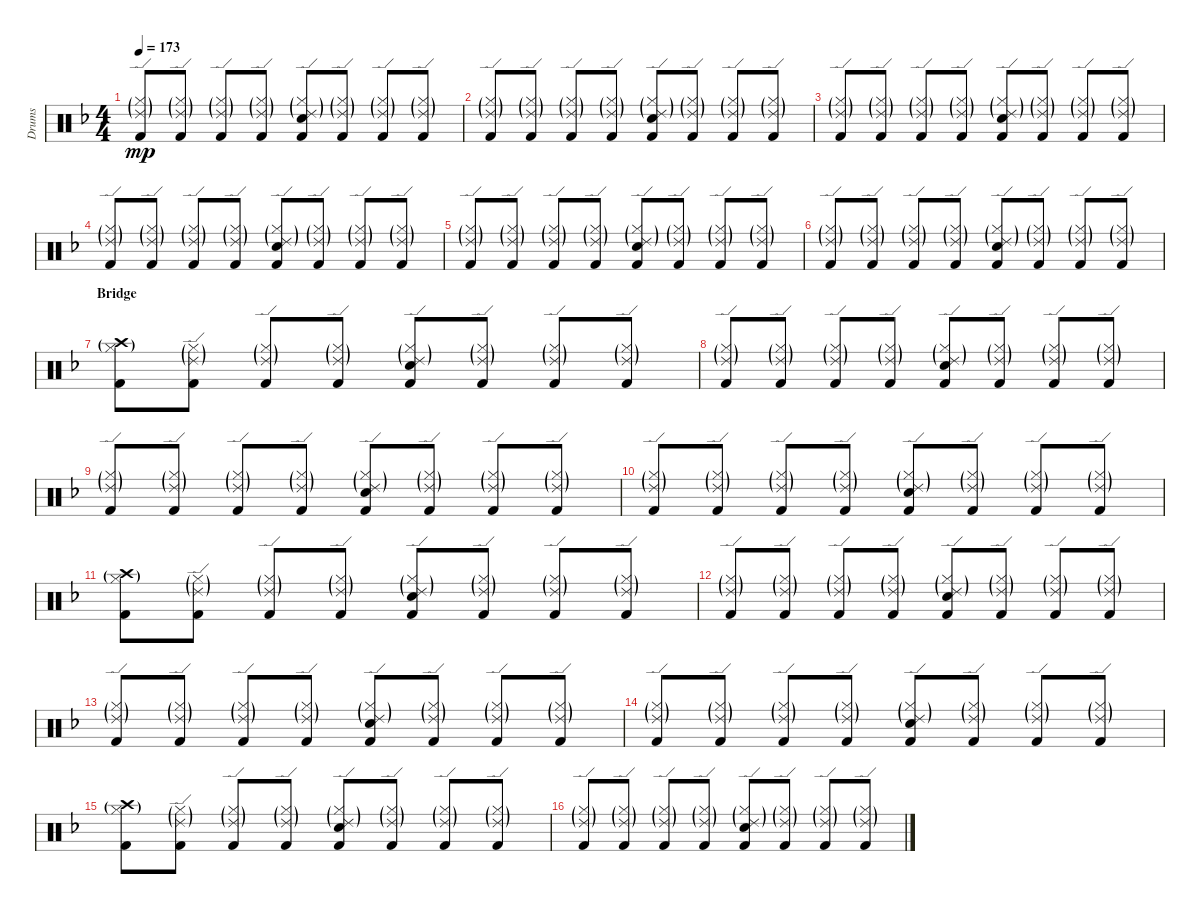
\track ("Drums" "Drums") {instrument percussion}
\staff {score}
\articulation defaults
\ts (4 4)
\tempo 173
\clef neutral
\ks dminor
("Ride (edge) 2"{g} "Hi-Hat (closed)"{g} "Kick (hit) 2").8{dy mp} ("Ride (edge) 2"{g} "Hi-Hat (closed)"{g} "Kick (hit) 2").8 ("Ride (edge) 2"{g} "Hi-Hat (closed)"{g} "Kick (hit) 2").8 ("Ride (edge) 2"{g} "Hi-Hat (closed)"{g} "Kick (hit) 2").8 ("Ride (edge) 2"{g} "Hi-Hat (closed)"{g} "Snare (hit) 2" "Kick (hit) 2").8 ("Ride (edge) 2"{g} "Hi-Hat (closed)"{g} "Kick (hit) 2").8 ("Ride (edge) 2"{g} "Hi-Hat (closed)"{g} "Kick (hit) 2").8 ("Ride (edge) 2"{g} "Hi-Hat (closed)"{g} "Kick (hit) 2").8 |
("Ride (edge) 2"{g} "Hi-Hat (closed)"{g} "Kick (hit) 2").8 ("Ride (edge) 2"{g} "Hi-Hat (closed)"{g} "Kick (hit) 2").8 ("Ride (edge) 2"{g} "Hi-Hat (closed)"{g} "Kick (hit) 2").8 ("Ride (edge) 2"{g} "Hi-Hat (closed)"{g} "Kick (hit) 2").8 ("Ride (edge) 2"{g} "Hi-Hat (closed)"{g} "Snare (hit) 2" "Kick (hit) 2").8 ("Ride (edge) 2"{g} "Hi-Hat (closed)"{g} "Kick (hit) 2").8 ("Ride (edge) 2"{g} "Hi-Hat (closed)"{g} "Kick (hit) 2").8 ("Ride (edge) 2"{g} "Hi-Hat (closed)"{g} "Kick (hit) 2").8 |
("Ride (edge) 2"{g} "Hi-Hat (closed)"{g} "Kick (hit) 2").8 ("Ride (edge) 2"{g} "Hi-Hat (closed)"{g} "Kick (hit) 2").8 ("Ride (edge) 2"{g} "Hi-Hat (closed)"{g} "Kick (hit) 2").8 ("Ride (edge) 2"{g} "Hi-Hat (closed)"{g} "Kick (hit) 2").8 ("Ride (edge) 2"{g} "Hi-Hat (closed)"{g} "Snare (hit) 2" "Kick (hit) 2").8 ("Ride (edge) 2"{g} "Hi-Hat (closed)"{g} "Kick (hit) 2").8 ("Ride (edge) 2"{g} "Hi-Hat (closed)"{g} "Kick (hit) 2").8 ("Ride (edge) 2"{g} "Hi-Hat (closed)"{g} "Kick (hit) 2").8 |
("Ride (edge) 2"{g} "Hi-Hat (closed)"{g} "Kick (hit) 2").8 ("Ride (edge) 2"{g} "Hi-Hat (closed)"{g} "Kick (hit) 2").8 ("Ride (edge) 2"{g} "Hi-Hat (closed)"{g} "Kick (hit) 2").8 ("Ride (edge) 2"{g} "Hi-Hat (closed)"{g} "Kick (hit) 2").8 ("Ride (edge) 2"{g} "Hi-Hat (closed)"{g} "Snare (hit) 2" "Kick (hit) 2").8 ("Ride (edge) 2"{g} "Hi-Hat (closed)"{g} "Kick (hit) 2").8 ("Ride (edge) 2"{g} "Hi-Hat (closed)"{g} "Kick (hit) 2").8 ("Ride (edge) 2"{g} "Hi-Hat (closed)"{g} "Kick (hit) 2").8 |
("Ride (edge) 2"{g} "Hi-Hat (closed)"{g} "Kick (hit) 2").8 ("Ride (edge) 2"{g} "Hi-Hat (closed)"{g} "Kick (hit) 2").8 ("Ride (edge) 2"{g} "Hi-Hat (closed)"{g} "Kick (hit) 2").8 ("Ride (edge) 2"{g} "Hi-Hat (closed)"{g} "Kick (hit) 2").8 ("Ride (edge) 2"{g} "Hi-Hat (closed)"{g} "Snare (hit) 2" "Kick (hit) 2").8 ("Ride (edge) 2"{g} "Hi-Hat (closed)"{g} "Kick (hit) 2").8 ("Ride (edge) 2"{g} "Hi-Hat (closed)"{g} "Kick (hit) 2").8 ("Ride (edge) 2"{g} "Hi-Hat (closed)"{g} "Kick (hit) 2").8 |
("Ride (edge) 2"{g} "Hi-Hat (closed)"{g} "Kick (hit) 2").8 ("Ride (edge) 2"{g} "Hi-Hat (closed)"{g} "Kick (hit) 2").8 ("Ride (edge) 2"{g} "Hi-Hat (closed)"{g} "Kick (hit) 2").8 ("Ride (edge) 2"{g} "Hi-Hat (closed)"{g} "Kick (hit) 2").8 ("Ride (edge) 2"{g} "Hi-Hat (closed)"{g} "Snare (hit) 2" "Kick (hit) 2").8 ("Ride (edge) 2"{g} "Hi-Hat (closed)"{g} "Kick (hit) 2").8 ("Ride (edge) 2"{g} "Hi-Hat (closed)"{g} "Kick (hit) 2").8 ("Ride (edge) 2"{g} "Hi-Hat (closed)"{g} "Kick (hit) 2").8 |
\section ("" "Bridge")
("Crash high (hit)"{g} "Hi-Hat (closed)"{g} "Kick (hit) 2").8 ("Ride (edge) 2"{g} "Hi-Hat (closed)"{g} "Kick (hit) 2").8 ("Ride (edge) 2"{g} "Hi-Hat (closed)"{g} "Kick (hit) 2").8 ("Ride (edge) 2"{g} "Hi-Hat (closed)"{g} "Kick (hit) 2").8 ("Ride (edge) 2"{g} "Hi-Hat (closed)"{g} "Snare (hit) 2" "Kick (hit) 2").8 ("Ride (edge) 2"{g} "Hi-Hat (closed)"{g} "Kick (hit) 2").8 ("Ride (edge) 2"{g} "Hi-Hat (closed)"{g} "Kick (hit) 2").8 ("Ride (edge) 2"{g} "Hi-Hat (closed)"{g} "Kick (hit) 2").8 |
("Ride (edge) 2"{g} "Hi-Hat (closed)"{g} "Kick (hit) 2").8 ("Ride (edge) 2"{g} "Hi-Hat (closed)"{g} "Kick (hit) 2").8 ("Ride (edge) 2"{g} "Hi-Hat (closed)"{g} "Kick (hit) 2").8 ("Ride (edge) 2"{g} "Hi-Hat (closed)"{g} "Kick (hit) 2").8 ("Ride (edge) 2"{g} "Hi-Hat (closed)"{g} "Snare (hit) 2" "Kick (hit) 2").8 ("Ride (edge) 2"{g} "Hi-Hat (closed)"{g} "Kick (hit) 2").8 ("Ride (edge) 2"{g} "Hi-Hat (closed)"{g} "Kick (hit) 2").8 ("Ride (edge) 2"{g} "Hi-Hat (closed)"{g} "Kick (hit) 2").8 |
("Ride (edge) 2"{g} "Hi-Hat (closed)"{g} "Kick (hit) 2").8 ("Ride (edge) 2"{g} "Hi-Hat (closed)"{g} "Kick (hit) 2").8 ("Ride (edge) 2"{g} "Hi-Hat (closed)"{g} "Kick (hit) 2").8 ("Ride (edge) 2"{g} "Hi-Hat (closed)"{g} "Kick (hit) 2").8 ("Ride (edge) 2"{g} "Hi-Hat (closed)"{g} "Snare (hit) 2" "Kick (hit) 2").8 ("Ride (edge) 2"{g} "Hi-Hat (closed)"{g} "Kick (hit) 2").8 ("Ride (edge) 2"{g} "Hi-Hat (closed)"{g} "Kick (hit) 2").8 ("Ride (edge) 2"{g} "Hi-Hat (closed)"{g} "Kick (hit) 2").8 |
("Ride (edge) 2"{g} "Hi-Hat (closed)"{g} "Kick (hit) 2").8 ("Ride (edge) 2"{g} "Hi-Hat (closed)"{g} "Kick (hit) 2").8 ("Ride (edge) 2"{g} "Hi-Hat (closed)"{g} "Kick (hit) 2").8 ("Ride (edge) 2"{g} "Hi-Hat (closed)"{g} "Kick (hit) 2").8 ("Ride (edge) 2"{g} "Hi-Hat (closed)"{g} "Snare (hit) 2" "Kick (hit) 2").8 ("Ride (edge) 2"{g} "Hi-Hat (closed)"{g} "Kick (hit) 2").8 ("Ride (edge) 2"{g} "Hi-Hat (closed)"{g} "Kick (hit) 2").8 ("Ride (edge) 2"{g} "Hi-Hat (closed)"{g} "Kick (hit) 2").8 |
("Crash high (hit)"{g} "Hi-Hat (closed)"{g} "Kick (hit) 2").8 ("Ride (edge) 2"{g} "Hi-Hat (closed)"{g} "Kick (hit) 2").8 ("Ride (edge) 2"{g} "Hi-Hat (closed)"{g} "Kick (hit) 2").8 ("Ride (edge) 2"{g} "Hi-Hat (closed)"{g} "Kick (hit) 2").8 ("Ride (edge) 2"{g} "Hi-Hat (closed)"{g} "Snare (hit) 2" "Kick (hit) 2").8 ("Ride (edge) 2"{g} "Hi-Hat (closed)"{g} "Kick (hit) 2").8 ("Ride (edge) 2"{g} "Hi-Hat (closed)"{g} "Kick (hit) 2").8 ("Ride (edge) 2"{g} "Hi-Hat (closed)"{g} "Kick (hit) 2").8 |
("Ride (edge) 2"{g} "Hi-Hat (closed)"{g} "Kick (hit) 2").8 ("Ride (edge) 2"{g} "Hi-Hat (closed)"{g} "Kick (hit) 2").8 ("Ride (edge) 2"{g} "Hi-Hat (closed)"{g} "Kick (hit) 2").8 ("Ride (edge) 2"{g} "Hi-Hat (closed)"{g} "Kick (hit) 2").8 ("Ride (edge) 2"{g} "Hi-Hat (closed)"{g} "Snare (hit) 2" "Kick (hit) 2").8 ("Ride (edge) 2"{g} "Hi-Hat (closed)"{g} "Kick (hit) 2").8 ("Ride (edge) 2"{g} "Hi-Hat (closed)"{g} "Kick (hit) 2").8 ("Ride (edge) 2"{g} "Hi-Hat (closed)"{g} "Kick (hit) 2").8 |
("Ride (edge) 2"{g} "Hi-Hat (closed)"{g} "Kick (hit) 2").8 ("Ride (edge) 2"{g} "Hi-Hat (closed)"{g} "Kick (hit) 2").8 ("Ride (edge) 2"{g} "Hi-Hat (closed)"{g} "Kick (hit) 2").8 ("Ride (edge) 2"{g} "Hi-Hat (closed)"{g} "Kick (hit) 2").8 ("Ride (edge) 2"{g} "Hi-Hat (closed)"{g} "Snare (hit) 2" "Kick (hit) 2").8 ("Ride (edge) 2"{g} "Hi-Hat (closed)"{g} "Kick (hit) 2").8 ("Ride (edge) 2"{g} "Hi-Hat (closed)"{g} "Kick (hit) 2").8 ("Ride (edge) 2"{g} "Hi-Hat (closed)"{g} "Kick (hit) 2").8 |
("Ride (edge) 2"{g} "Hi-Hat (closed)"{g} "Kick (hit) 2").8 ("Ride (edge) 2"{g} "Hi-Hat (closed)"{g} "Kick (hit) 2").8 ("Ride (edge) 2"{g} "Hi-Hat (closed)"{g} "Kick (hit) 2").8 ("Ride (edge) 2"{g} "Hi-Hat (closed)"{g} "Kick (hit) 2").8 ("Ride (edge) 2"{g} "Hi-Hat (closed)"{g} "Snare (hit) 2" "Kick (hit) 2").8 ("Ride (edge) 2"{g} "Hi-Hat (closed)"{g} "Kick (hit) 2").8 ("Ride (edge) 2"{g} "Hi-Hat (closed)"{g} "Kick (hit) 2").8 ("Ride (edge) 2"{g} "Hi-Hat (closed)"{g} "Kick (hit) 2").8 |
("Crash high (hit)"{g} "Hi-Hat (closed)"{g} "Kick (hit) 2").8 ("Ride (edge) 2"{g} "Hi-Hat (closed)"{g} "Kick (hit) 2").8 ("Ride (edge) 2"{g} "Hi-Hat (closed)"{g} "Kick (hit) 2").8 ("Ride (edge) 2"{g} "Hi-Hat (closed)"{g} "Kick (hit) 2").8 ("Ride (edge) 2"{g} "Hi-Hat (closed)"{g} "Snare (hit) 2" "Kick (hit) 2").8 ("Ride (edge) 2"{g} "Hi-Hat (closed)"{g} "Kick (hit) 2").8 ("Ride (edge) 2"{g} "Hi-Hat (closed)"{g} "Kick (hit) 2").8 ("Ride (edge) 2"{g} "Hi-Hat (closed)"{g} "Kick (hit) 2").8 |
("Ride (edge) 2"{g} "Hi-Hat (closed)"{g} "Kick (hit) 2").8 ("Ride (edge) 2"{g} "Hi-Hat (closed)"{g} "Kick (hit) 2").8 ("Ride (edge) 2"{g} "Hi-Hat (closed)"{g} "Kick (hit) 2").8 ("Ride (edge) 2"{g} "Hi-Hat (closed)"{g} "Kick (hit) 2").8 ("Ride (edge) 2"{g} "Hi-Hat (closed)"{g} "Snare (hit) 2" "Kick (hit) 2").8 ("Ride (edge) 2"{g} "Hi-Hat (closed)"{g} "Kick (hit) 2").8 ("Ride (edge) 2"{g} "Hi-Hat (closed)"{g} "Kick (hit) 2").8 ("Ride (edge) 2"{g} "Hi-Hat (closed)"{g} "Kick (hit) 2").8
